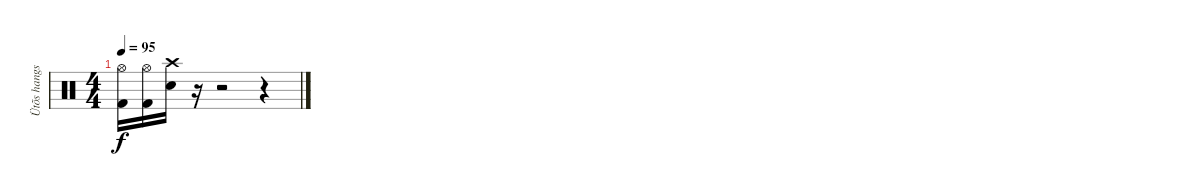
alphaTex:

\track ("Ütõs hangszer" "Ütõs hangs") {instrument percussion}
\staff {score}
\articulation defaults
\ts (4 4)
\tempo 95
\clef neutral
\ks c
("Hi-Hat (open)" "Kick (hit) 2").16{dy f} ("Hi-Hat (open)" "Kick (hit) 2").16 ("Crash high (hit)" "Snare (hit) 2").16{volume 0} r.16 r.2 r.4
